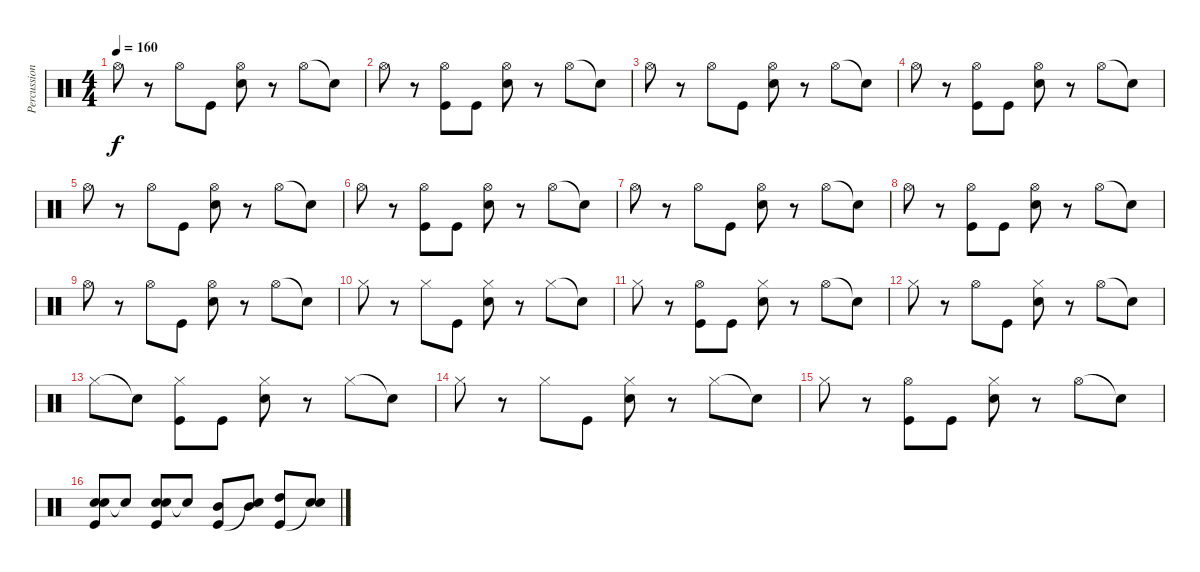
\track ("Percussion" "Percussion") {instrument percussion}
\staff {score}
\articulation defaults
\ts (4 4)
\tempo 160
\clef neutral
\ks c "Hi-Hat (open)".8{dy f}
r.8 "Hi-Hat (open)".8 "Kick (hit)".8 ("Hi-Hat (open)" "Snare (hit) 2").8 r.8 "Hi-Hat (open)".8 "Snare (hit)"{t}.8 |
"Hi-Hat (open)".8 r.8 ("Hi-Hat (open)" "Kick (hit)").8 "Kick (hit)".8 ("Hi-Hat (open)" "Snare (hit) 2").8 r.8 "Hi-Hat (open)".8 "Snare (hit)"{t}.8 |
"Hi-Hat (open)".8 r.8 "Hi-Hat (open)".8 "Kick (hit)".8 ("Hi-Hat (open)" "Snare (hit) 2").8 r.8 "Hi-Hat (open)".8 "Snare (hit)"{t}.8 |
"Hi-Hat (open)".8 r.8 ("Hi-Hat (open)" "Kick (hit)").8 "Kick (hit)".8 ("Hi-Hat (open)" "Snare (hit) 2").8 r.8 "Hi-Hat (open)".8 "Snare (hit)"{t}.8 |
"Hi-Hat (open)".8 r.8 "Hi-Hat (open)".8 "Kick (hit)".8 ("Hi-Hat (open)" "Snare (hit) 2").8 r.8 "Hi-Hat (open)".8 "Snare (hit)"{t}.8 |
"Hi-Hat (open)".8 r.8 ("Hi-Hat (open)" "Kick (hit)").8 "Kick (hit)".8 ("Hi-Hat (open)" "Snare (hit) 2").8 r.8 "Hi-Hat (open)".8 "Snare (hit)"{t}.8 |
"Hi-Hat (open)".8 r.8 "Hi-Hat (open)".8 "Kick (hit)".8 ("Hi-Hat (open)" "Snare (hit) 2").8 r.8 "Hi-Hat (open)".8 "Snare (hit)"{t}.8 |
"Hi-Hat (open)".8 r.8 ("Hi-Hat (open)" "Kick (hit)").8 "Kick (hit)".8 ("Hi-Hat (open)" "Snare (hit) 2").8 r.8 "Hi-Hat (open)".8 "Snare (hit)"{t}.8 |
"Hi-Hat (open)".8 r.8 "Hi-Hat (open)".8 "Kick (hit)".8 ("Hi-Hat (open)" "Snare (hit) 2").8 r.8 "Hi-Hat (open)".8 "Snare (hit)"{t}.8 |
"Hi-Hat (closed)".8 r.8 "Hi-Hat (closed)".8 "Kick (hit)".8 ("Hi-Hat (closed)" "Snare (hit) 2").8 r.8 "Hi-Hat (closed)".8 "Snare (hit)"{t}.8 |
"Hi-Hat (closed)".8 r.8 ("Hi-Hat (open)" "Kick (hit)").8 "Kick (hit)".8 ("Hi-Hat (closed)" "Snare (hit) 2").8 r.8 "Hi-Hat (open)".8 "Snare (hit)"{t}.8 |
"Hi-Hat (closed)".8 r.8 "Hi-Hat (open)".8 "Kick (hit)".8 ("Hi-Hat (closed)" "Snare (hit) 2").8 r.8 "Hi-Hat (open)".8 "Snare (hit)"{t}.8 |
"Hi-Hat (closed)".8 "Snare (hit)"{t}.8 ("Hi-Hat (closed)" "Kick (hit)").8 "Kick (hit)".8 ("Hi-Hat (closed)" "Snare (hit) 2").8 r.8 "Hi-Hat (closed)".8 "Snare (hit)"{t}.8 |
"Hi-Hat (closed)".8 r.8 "Hi-Hat (closed)".8 "Kick (hit)".8 ("Hi-Hat (closed)" "Snare (hit) 2").8 r.8 "Hi-Hat (closed)".8 "Snare (hit)"{t}.8 |
"Hi-Hat (closed)".8 r.8 ("Hi-Hat (open)" "Kick (hit)").8 "Kick (hit)".8 ("Hi-Hat (closed)" "Snare (hit) 2").8 r.8 "Hi-Hat (open)".8 "Snare (hit)"{t}.8 |
("Snare (hit) 2" "Snare (hit) 2" "Kick (hit)").8 "Snare (hit)"{t}.8 ("Snare (hit) 2" "Snare (hit) 2" "Kick (hit)").8 "Snare (hit)"{t}.8 ("Mid Tom (hit)" "Kick (hit)").8 ("Mid Tom (hit)" "Snare (hit)"{t}).8 ("High Tom (hit)" "Kick (hit)").8 ("Snare (hit) 2" "Snare (hit)"{t}).8
